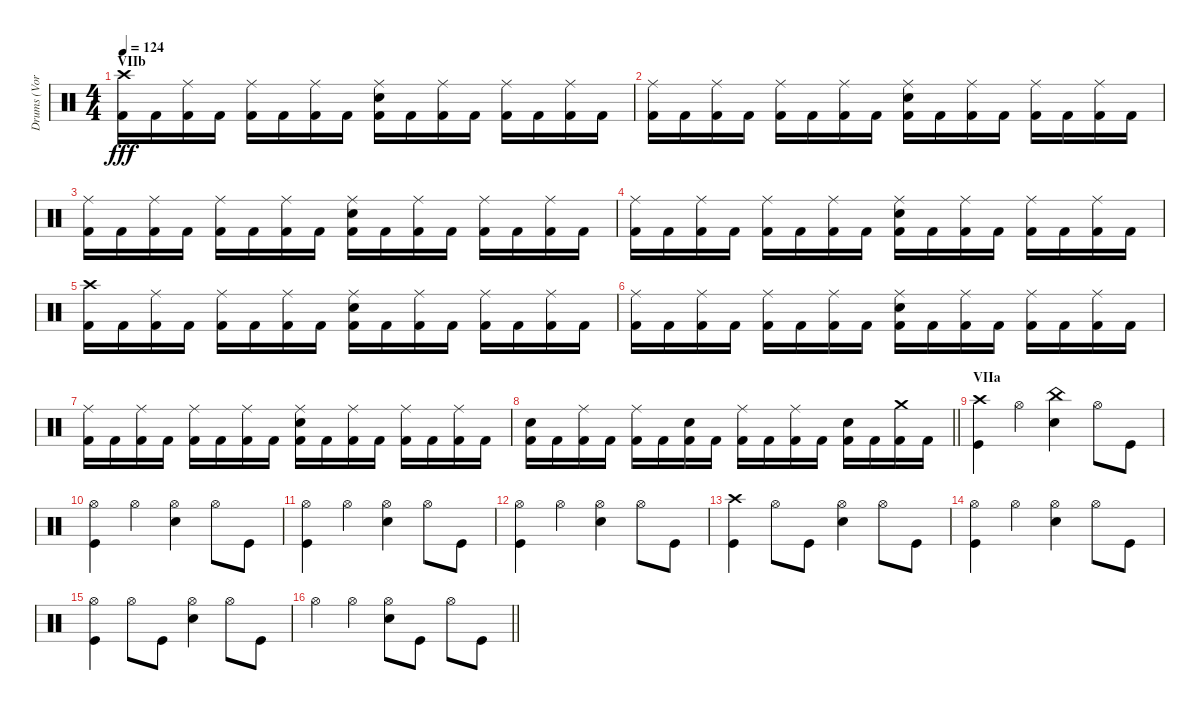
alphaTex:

\track ("Drums (Vortex)" "Drums (Vor") {instrument percussion}
\staff {score}
\articulation defaults
\ts (4 4)
\section ("" "VIIb")
\tempo 124
\clef neutral
\ks c
("Crash high (hit)" "Kick (hit) 2").16{dy fff} "Kick (hit) 2".16 ("Ride (middle)" "Kick (hit) 2").16 "Kick (hit) 2".16 ("Ride (middle)" "Kick (hit) 2").16 "Kick (hit) 2".16 ("Ride (middle)" "Kick (hit) 2").16 "Kick (hit) 2".16 ("Ride (middle)" "Snare (hit) 2" "Kick (hit) 2").16 "Kick (hit) 2".16 ("Ride (middle)" "Kick (hit) 2").16 "Kick (hit) 2".16 ("Ride (middle)" "Kick (hit) 2").16 "Kick (hit) 2".16 ("Ride (middle)" "Kick (hit) 2").16 "Kick (hit) 2".16 |
("Ride (middle)" "Kick (hit) 2").16 "Kick (hit) 2".16 ("Ride (middle)" "Kick (hit) 2").16 "Kick (hit) 2".16 ("Ride (middle)" "Kick (hit) 2").16 "Kick (hit) 2".16 ("Ride (middle)" "Kick (hit) 2").16 "Kick (hit) 2".16 ("Ride (middle)" "Snare (hit) 2" "Kick (hit) 2").16 "Kick (hit) 2".16 ("Ride (middle)" "Kick (hit) 2").16 "Kick (hit) 2".16 ("Ride (middle)" "Kick (hit) 2").16 "Kick (hit) 2".16 ("Ride (middle)" "Kick (hit) 2").16 "Kick (hit) 2".16 |
("Ride (middle)" "Kick (hit) 2").16 "Kick (hit) 2".16 ("Ride (middle)" "Kick (hit) 2").16 "Kick (hit) 2".16 ("Ride (middle)" "Kick (hit) 2").16 "Kick (hit) 2".16 ("Ride (middle)" "Kick (hit) 2").16 "Kick (hit) 2".16 ("Ride (middle)" "Snare (hit) 2" "Kick (hit) 2").16 "Kick (hit) 2".16 ("Ride (middle)" "Kick (hit) 2").16 "Kick (hit) 2".16 ("Ride (middle)" "Kick (hit) 2").16 "Kick (hit) 2".16 ("Ride (middle)" "Kick (hit) 2").16 "Kick (hit) 2".16 |
("Ride (middle)" "Kick (hit) 2").16 "Kick (hit) 2".16 ("Ride (middle)" "Kick (hit) 2").16 "Kick (hit) 2".16 ("Ride (middle)" "Kick (hit) 2").16 "Kick (hit) 2".16 ("Ride (middle)" "Kick (hit) 2").16 "Kick (hit) 2".16 ("Ride (middle)" "Snare (hit) 2" "Kick (hit) 2").16 "Kick (hit) 2".16 ("Ride (middle)" "Kick (hit) 2").16 "Kick (hit) 2".16 ("Ride (middle)" "Kick (hit) 2").16 "Kick (hit) 2".16 ("Ride (middle)" "Kick (hit) 2").16 "Kick (hit) 2".16 |
("Crash high (hit)" "Kick (hit) 2").16 "Kick (hit) 2".16 ("Ride (middle)" "Kick (hit) 2").16 "Kick (hit) 2".16 ("Ride (middle)" "Kick (hit) 2").16 "Kick (hit) 2".16 ("Ride (middle)" "Kick (hit) 2").16 "Kick (hit) 2".16 ("Ride (middle)" "Snare (hit) 2" "Kick (hit) 2").16 "Kick (hit) 2".16 ("Ride (middle)" "Kick (hit) 2").16 "Kick (hit) 2".16 ("Ride (middle)" "Kick (hit) 2").16 "Kick (hit) 2".16 ("Ride (middle)" "Kick (hit) 2").16 "Kick (hit) 2".16 |
("Ride (middle)" "Kick (hit) 2").16 "Kick (hit) 2".16 ("Ride (middle)" "Kick (hit) 2").16 "Kick (hit) 2".16 ("Ride (middle)" "Kick (hit) 2").16 "Kick (hit) 2".16 ("Ride (middle)" "Kick (hit) 2").16 "Kick (hit) 2".16 ("Ride (middle)" "Snare (hit) 2" "Kick (hit) 2").16 "Kick (hit) 2".16 ("Ride (middle)" "Kick (hit) 2").16 "Kick (hit) 2".16 ("Ride (middle)" "Kick (hit) 2").16 "Kick (hit) 2".16 ("Ride (middle)" "Kick (hit) 2").16 "Kick (hit) 2".16 |
("Ride (middle)" "Kick (hit) 2").16 "Kick (hit) 2".16 ("Ride (middle)" "Kick (hit) 2").16 "Kick (hit) 2".16 ("Ride (middle)" "Kick (hit) 2").16 "Kick (hit) 2".16 ("Ride (middle)" "Kick (hit) 2").16 "Kick (hit) 2".16 ("Ride (middle)" "Snare (hit) 2" "Kick (hit) 2").16 "Kick (hit) 2".16 ("Ride (middle)" "Kick (hit) 2").16 "Kick (hit) 2".16 ("Ride (middle)" "Kick (hit) 2").16 "Kick (hit) 2".16 ("Ride (middle)" "Kick (hit) 2").16 "Kick (hit) 2".16 |
\barLineRight lightlight
("Snare (hit) 2" "Kick (hit) 2").16 "Kick (hit) 2".16 ("Ride (middle)" "Kick (hit) 2").16 "Kick (hit) 2".16 ("Ride (middle)" "Kick (hit) 2").16 "Kick (hit) 2".16 ("Snare (hit) 2" "Kick (hit) 2").16 "Kick (hit) 2".16 ("Ride (middle)" "Kick (hit) 2").16 "Kick (hit) 2".16 ("Ride (middle)" "Kick (hit) 2").16 "Kick (hit) 2".16 ("Snare (hit) 2" "Kick (hit) 2").16 "Kick (hit) 2".16 ("Crash medium (hit)" "Kick (hit) 2").16 "Kick (hit) 2".16 |
\section ("" "VIIa")
("Crash high (hit)" "Kick (hit)").4 "Hi-Hat (open)".4 ("China (hit)" "Snare (hit) 2").4 "Hi-Hat (open)".8 "Kick (hit)".8 |
("Kick (hit)" "Hi-Hat (open)").4 "Hi-Hat (open)".4 ("Hi-Hat (open)" "Snare (hit) 2").4 "Hi-Hat (open)".8 "Kick (hit)".8 |
("Kick (hit)" "Hi-Hat (open)").4 "Hi-Hat (open)".4 ("Hi-Hat (open)" "Snare (hit) 2").4 "Hi-Hat (open)".8 "Kick (hit)".8 |
("Kick (hit)" "Hi-Hat (open)").4 "Hi-Hat (open)".4 ("Hi-Hat (open)" "Snare (hit) 2").4 "Hi-Hat (open)".8 "Kick (hit)".8 |
("Crash high (hit)" "Kick (hit)").4 "Hi-Hat (open)".8 "Kick (hit)".8 ("Hi-Hat (open)" "Snare (hit) 2").4 "Hi-Hat (open)".8 "Kick (hit)".8 |
("Kick (hit)" "Hi-Hat (open)").4 "Hi-Hat (open)".4 ("Hi-Hat (open)" "Snare (hit) 2").4 "Hi-Hat (open)".8 "Kick (hit)".8 |
("Kick (hit)" "Hi-Hat (open)").4 "Hi-Hat (open)".8 "Kick (hit)".8 ("Hi-Hat (open)" "Snare (hit) 2").4 "Hi-Hat (open)".8 "Kick (hit)".8 |
\barLineRight lightlight "Hi-Hat (open)".4 "Hi-Hat (open)".4
("Hi-Hat (open)" "Snare (hit) 2").8 "Kick (hit)".8 "Hi-Hat (open)".8 "Kick (hit)".8
